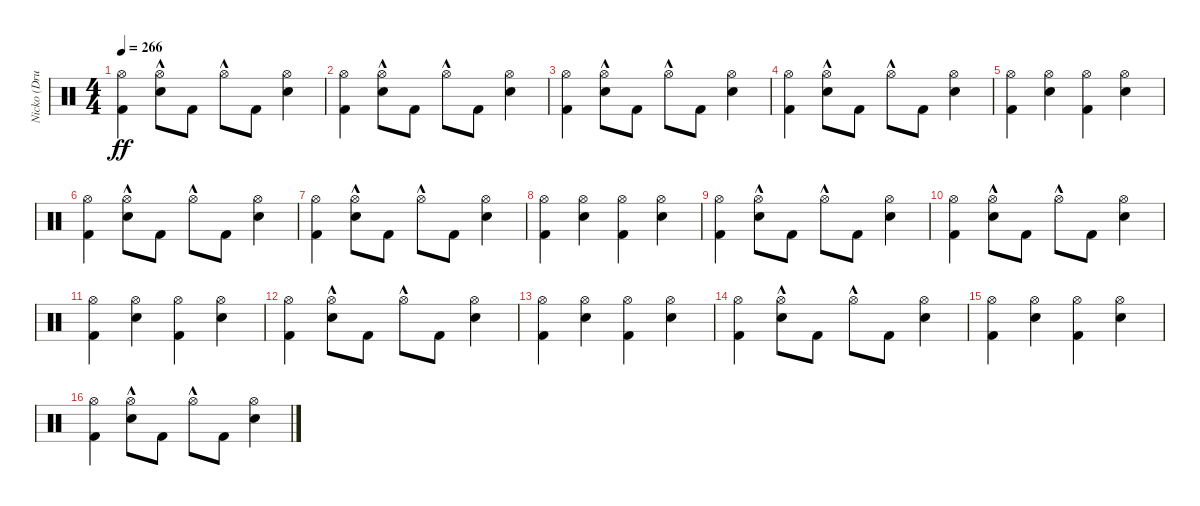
\track ("Nicko (Drums)" "Nicko (Dru") {instrument percussion}
\staff {score}
\articulation defaults
\ts (4 4)
\tempo 266
\clef neutral
\ks c
("Kick (hit) 2" "Hi-Hat (open)").4{dy ff} ("Snare (hit) 2" "Hi-Hat (open)"{hac}).8 "Kick (hit) 2".8 "Hi-Hat (open)"{hac}.8 "Kick (hit) 2".8 ("Snare (hit) 2" "Hi-Hat (open)").4 |
("Kick (hit) 2" "Hi-Hat (open)").4 ("Snare (hit) 2" "Hi-Hat (open)"{hac}).8 "Kick (hit) 2".8 "Hi-Hat (open)"{hac}.8 "Kick (hit) 2".8 ("Snare (hit) 2" "Hi-Hat (open)").4 |
("Kick (hit) 2" "Hi-Hat (open)").4 ("Snare (hit) 2" "Hi-Hat (open)"{hac}).8 "Kick (hit) 2".8 "Hi-Hat (open)"{hac}.8 "Kick (hit) 2".8 ("Snare (hit) 2" "Hi-Hat (open)").4 |
("Kick (hit) 2" "Hi-Hat (open)").4 ("Snare (hit) 2" "Hi-Hat (open)"{hac}).8 "Kick (hit) 2".8 "Hi-Hat (open)"{hac}.8 "Kick (hit) 2".8 ("Snare (hit) 2" "Hi-Hat (open)").4 |
("Kick (hit) 2" "Hi-Hat (open)").4 ("Snare (hit) 2" "Hi-Hat (open)").4 ("Kick (hit) 2" "Hi-Hat (open)").4 ("Snare (hit) 2" "Hi-Hat (open)").4 |
("Kick (hit) 2" "Hi-Hat (open)").4 ("Snare (hit) 2" "Hi-Hat (open)"{hac}).8 "Kick (hit) 2".8 "Hi-Hat (open)"{hac}.8 "Kick (hit) 2".8 ("Snare (hit) 2" "Hi-Hat (open)").4 |
("Kick (hit) 2" "Hi-Hat (open)").4 ("Snare (hit) 2" "Hi-Hat (open)"{hac}).8 "Kick (hit) 2".8 "Hi-Hat (open)"{hac}.8 "Kick (hit) 2".8 ("Snare (hit) 2" "Hi-Hat (open)").4 |
("Kick (hit) 2" "Hi-Hat (open)").4 ("Snare (hit) 2" "Hi-Hat (open)").4 ("Kick (hit) 2" "Hi-Hat (open)").4 ("Snare (hit) 2" "Hi-Hat (open)").4 |
("Kick (hit) 2" "Hi-Hat (open)").4 ("Snare (hit) 2" "Hi-Hat (open)"{hac}).8 "Kick (hit) 2".8 "Hi-Hat (open)"{hac}.8 "Kick (hit) 2".8 ("Snare (hit) 2" "Hi-Hat (open)").4 |
("Kick (hit) 2" "Hi-Hat (open)").4 ("Snare (hit) 2" "Hi-Hat (open)"{hac}).8 "Kick (hit) 2".8 "Hi-Hat (open)"{hac}.8 "Kick (hit) 2".8 ("Snare (hit) 2" "Hi-Hat (open)").4 |
("Kick (hit) 2" "Hi-Hat (open)").4 ("Snare (hit) 2" "Hi-Hat (open)").4 ("Kick (hit) 2" "Hi-Hat (open)").4 ("Snare (hit) 2" "Hi-Hat (open)").4 |
("Kick (hit) 2" "Hi-Hat (open)").4 ("Snare (hit) 2" "Hi-Hat (open)"{hac}).8 "Kick (hit) 2".8 "Hi-Hat (open)"{hac}.8 "Kick (hit) 2".8 ("Snare (hit) 2" "Hi-Hat (open)").4 |
("Kick (hit) 2" "Hi-Hat (open)").4 ("Snare (hit) 2" "Hi-Hat (open)").4 ("Kick (hit) 2" "Hi-Hat (open)").4 ("Snare (hit) 2" "Hi-Hat (open)").4 |
("Kick (hit) 2" "Hi-Hat (open)").4 ("Snare (hit) 2" "Hi-Hat (open)"{hac}).8 "Kick (hit) 2".8 "Hi-Hat (open)"{hac}.8 "Kick (hit) 2".8 ("Snare (hit) 2" "Hi-Hat (open)").4 |
("Kick (hit) 2" "Hi-Hat (open)").4 ("Snare (hit) 2" "Hi-Hat (open)").4 ("Kick (hit) 2" "Hi-Hat (open)").4 ("Snare (hit) 2" "Hi-Hat (open)").4 |
("Kick (hit) 2" "Hi-Hat (open)").4 ("Snare (hit) 2" "Hi-Hat (open)"{hac}).8 "Kick (hit) 2".8 "Hi-Hat (open)"{hac}.8 "Kick (hit) 2".8 ("Snare (hit) 2" "Hi-Hat (open)").4
